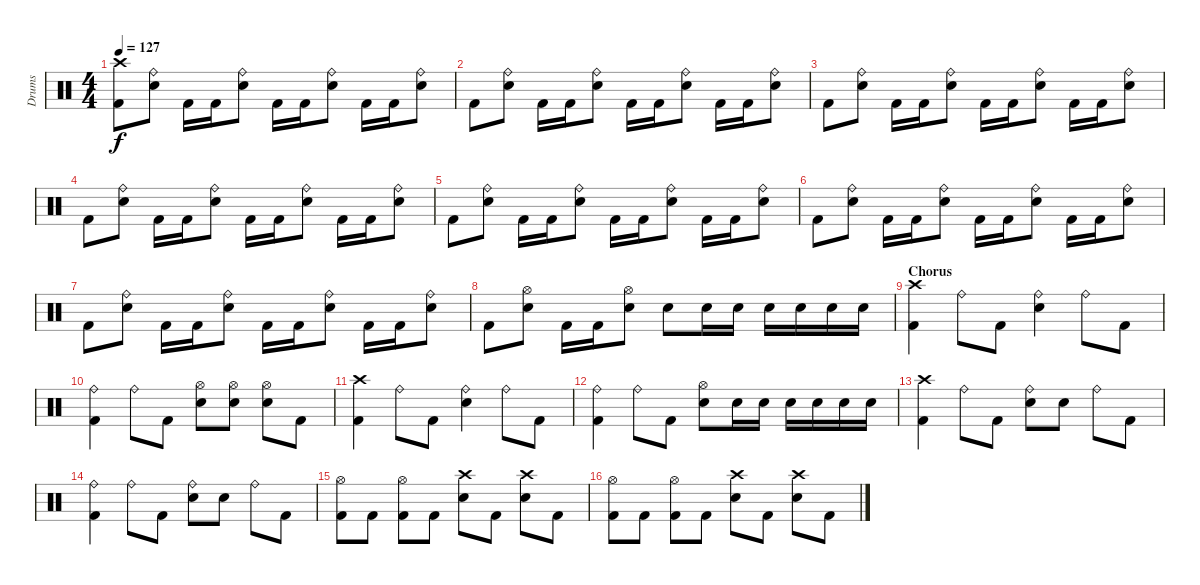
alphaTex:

\track ("Drums" "Drums") {instrument percussion}
\staff {score}
\articulation defaults
\ts (4 4)
\tempo 127
\clef neutral
\ks c
("Crash high (hit)" "Kick (hit) 2").8{dy f} ("Ride (bell)" "Snare (hit) 2").8 "Kick (hit) 2".16 "Kick (hit) 2".16 ("Ride (bell)" "Snare (hit) 2").8 "Kick (hit) 2".16 "Kick (hit) 2".16 ("Ride (bell)" "Snare (hit) 2").8 "Kick (hit) 2".16 "Kick (hit) 2".16 ("Ride (bell)" "Snare (hit) 2").8 |
"Kick (hit) 2".8 ("Ride (bell)" "Snare (hit) 2").8 "Kick (hit) 2".16 "Kick (hit) 2".16 ("Ride (bell)" "Snare (hit) 2").8 "Kick (hit) 2".16 "Kick (hit) 2".16 ("Ride (bell)" "Snare (hit) 2").8 "Kick (hit) 2".16 "Kick (hit) 2".16 ("Ride (bell)" "Snare (hit) 2").8 |
"Kick (hit) 2".8 ("Ride (bell)" "Snare (hit) 2").8 "Kick (hit) 2".16 "Kick (hit) 2".16 ("Ride (bell)" "Snare (hit) 2").8 "Kick (hit) 2".16 "Kick (hit) 2".16 ("Ride (bell)" "Snare (hit) 2").8 "Kick (hit) 2".16 "Kick (hit) 2".16 ("Ride (bell)" "Snare (hit) 2").8 |
"Kick (hit) 2".8 ("Ride (bell)" "Snare (hit) 2").8 "Kick (hit) 2".16 "Kick (hit) 2".16 ("Ride (bell)" "Snare (hit) 2").8 "Kick (hit) 2".16 "Kick (hit) 2".16 ("Ride (bell)" "Snare (hit) 2").8 "Kick (hit) 2".16 "Kick (hit) 2".16 ("Ride (bell)" "Snare (hit) 2").8 |
"Kick (hit) 2".8 ("Ride (bell)" "Snare (hit) 2").8 "Kick (hit) 2".16 "Kick (hit) 2".16 ("Ride (bell)" "Snare (hit) 2").8 "Kick (hit) 2".16 "Kick (hit) 2".16 ("Ride (bell)" "Snare (hit) 2").8 "Kick (hit) 2".16 "Kick (hit) 2".16 ("Ride (bell)" "Snare (hit) 2").8 |
"Kick (hit) 2".8 ("Ride (bell)" "Snare (hit) 2").8 "Kick (hit) 2".16 "Kick (hit) 2".16 ("Ride (bell)" "Snare (hit) 2").8 "Kick (hit) 2".16 "Kick (hit) 2".16 ("Ride (bell)" "Snare (hit) 2").8 "Kick (hit) 2".16 "Kick (hit) 2".16 ("Ride (bell)" "Snare (hit) 2").8 |
"Kick (hit) 2".8 ("Ride (bell)" "Snare (hit) 2").8 "Kick (hit) 2".16 "Kick (hit) 2".16 ("Ride (bell)" "Snare (hit) 2").8 "Kick (hit) 2".16 "Kick (hit) 2".16 ("Ride (bell)" "Snare (hit) 2").8 "Kick (hit) 2".16 "Kick (hit) 2".16 ("Ride (bell)" "Snare (hit) 2").8 |
"Kick (hit) 2".8 ("Hi-Hat (open)" "Snare (hit) 2").8 "Kick (hit) 2".16 "Kick (hit) 2".16 ("Hi-Hat (open)" "Snare (hit) 2").8 "Snare (hit) 2".8 "Snare (hit) 2".16 "Snare (hit) 2".16 "Snare (hit) 2".16 "Snare (hit) 2".16 "Snare (hit) 2".16 "Snare (hit) 2".16 |
\section ("" "Chorus")
("Crash high (hit)" "Kick (hit) 2").4 "Ride (bell)".8 "Kick (hit) 2".8 ("Ride (bell)" "Snare (hit) 2").4 "Ride (bell)".8 "Kick (hit) 2".8 |
("Ride (bell)" "Kick (hit) 2").4 "Ride (bell)".8 "Kick (hit) 2".8 ("Hi-Hat (open)" "Snare (hit) 2").8 ("Hi-Hat (open)" "Snare (hit) 2").8 ("Hi-Hat (open)" "Snare (hit) 2").8 "Kick (hit) 2".8 |
("Crash high (hit)" "Kick (hit) 2").4 "Ride (bell)".8 "Kick (hit) 2".8 ("Ride (bell)" "Snare (hit) 2").4 "Ride (bell)".8 "Kick (hit) 2".8 |
("Ride (bell)" "Kick (hit) 2").4 "Ride (bell)".8 "Kick (hit) 2".8 ("Hi-Hat (open)" "Snare (hit) 2").8 "Snare (hit) 2".16 "Snare (hit) 2".16 "Snare (hit) 2".16 "Snare (hit) 2".16 "Snare (hit) 2".16 "Snare (hit) 2".16 |
("Crash high (hit)" "Kick (hit) 2").4 "Ride (bell)".8 "Kick (hit) 2".8 ("Ride (bell)" "Snare (hit) 2").8 "Snare (hit) 2".8 "Ride (bell)".8 "Kick (hit) 2".8 |
("Ride (bell)" "Kick (hit) 2").4 "Ride (bell)".8 "Kick (hit) 2".8 ("Ride (bell)" "Snare (hit) 2").8 "Snare (hit) 2".8 "Ride (bell)".8 "Kick (hit) 2".8 |
("Hi-Hat (open)" "Kick (hit) 2").8 "Kick (hit) 2".8 ("Hi-Hat (open)" "Kick (hit) 2").8 "Kick (hit) 2".8 ("Crash high (hit)" "Snare (hit) 2").8 "Kick (hit) 2".8 ("Crash high (hit)" "Snare (hit) 2").8 "Kick (hit) 2".8 |
("Hi-Hat (open)" "Kick (hit) 2").8 "Kick (hit) 2".8 ("Hi-Hat (open)" "Kick (hit) 2").8 "Kick (hit) 2".8 ("Crash high (hit)" "Snare (hit) 2").8 "Kick (hit) 2".8 ("Crash high (hit)" "Snare (hit) 2").8 "Kick (hit) 2".8
